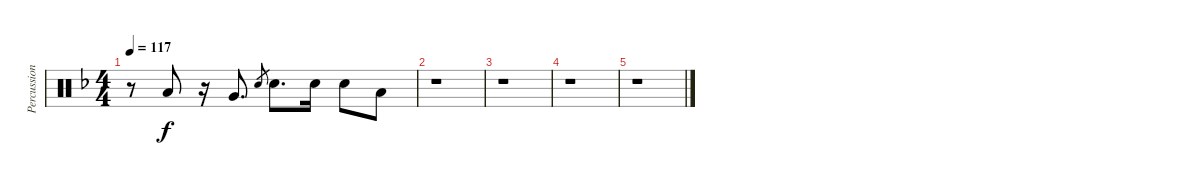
\track ("Percussions" "Percussion") {instrument percussion}
\staff {score}
\articulation defaults
\ts (4 4)
\tempo 117
\clef neutral
\ks f
r.8{dy f} "Low Tom (hit)".8 r.16 "Very Low Tom (hit)".8{d} "Snare (hit) 2".8{gr} "Snare (hit) 2".8{d} "Snare (hit) 2".16 "Snare (hit) 2".8 "Low Tom (hit)".8 |
r.1 |
r.1 |
r.1 |
r.1
